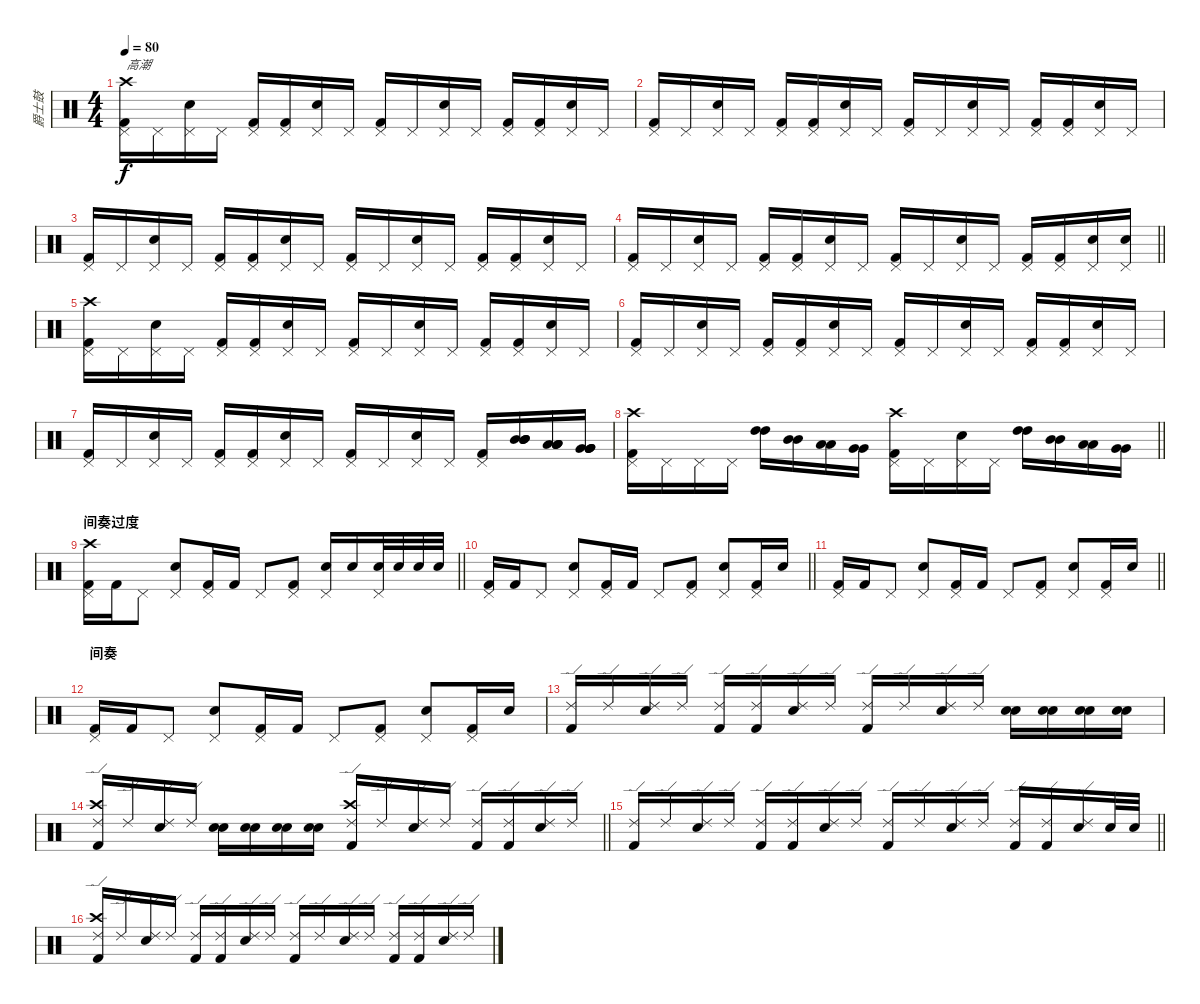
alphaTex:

\track ("爵士鼓" "爵士鼓") {instrument percussion}
\staff {score}
\articulation defaults
\ts (4 4)
\tempo 80
\clef neutral
\ks c
("Pedal Hi-Hat (hit)" "Kick (hit) 2" "Crash high (hit)").16{txt "高潮" dy f} "Pedal Hi-Hat (hit)".16 ("Pedal Hi-Hat (hit)" "Snare (hit) 2").16 "Pedal Hi-Hat (hit)".16 ("Pedal Hi-Hat (hit)" "Kick (hit) 2").16 ("Pedal Hi-Hat (hit)" "Kick (hit) 2").16 ("Pedal Hi-Hat (hit)" "Snare (hit) 2").16 "Pedal Hi-Hat (hit)".16 ("Pedal Hi-Hat (hit)" "Kick (hit) 2").16 "Pedal Hi-Hat (hit)".16 ("Pedal Hi-Hat (hit)" "Snare (hit) 2").16 "Pedal Hi-Hat (hit)".16 ("Pedal Hi-Hat (hit)" "Kick (hit) 2").16 ("Pedal Hi-Hat (hit)" "Kick (hit) 2").16 ("Pedal Hi-Hat (hit)" "Snare (hit) 2").16 "Pedal Hi-Hat (hit)".16 |
("Pedal Hi-Hat (hit)" "Kick (hit) 2").16 "Pedal Hi-Hat (hit)".16 ("Pedal Hi-Hat (hit)" "Snare (hit) 2").16 "Pedal Hi-Hat (hit)".16 ("Pedal Hi-Hat (hit)" "Kick (hit) 2").16 ("Pedal Hi-Hat (hit)" "Kick (hit) 2").16 ("Pedal Hi-Hat (hit)" "Snare (hit) 2").16 "Pedal Hi-Hat (hit)".16 ("Pedal Hi-Hat (hit)" "Kick (hit) 2").16 "Pedal Hi-Hat (hit)".16 ("Pedal Hi-Hat (hit)" "Snare (hit) 2").16 "Pedal Hi-Hat (hit)".16 ("Pedal Hi-Hat (hit)" "Kick (hit) 2").16 ("Pedal Hi-Hat (hit)" "Kick (hit) 2").16 ("Pedal Hi-Hat (hit)" "Snare (hit) 2").16 "Pedal Hi-Hat (hit)".16 |
("Pedal Hi-Hat (hit)" "Kick (hit) 2").16 "Pedal Hi-Hat (hit)".16 ("Pedal Hi-Hat (hit)" "Snare (hit) 2").16 "Pedal Hi-Hat (hit)".16 ("Pedal Hi-Hat (hit)" "Kick (hit) 2").16 ("Pedal Hi-Hat (hit)" "Kick (hit) 2").16 ("Pedal Hi-Hat (hit)" "Snare (hit) 2").16 "Pedal Hi-Hat (hit)".16 ("Pedal Hi-Hat (hit)" "Kick (hit) 2").16 "Pedal Hi-Hat (hit)".16 ("Pedal Hi-Hat (hit)" "Snare (hit) 2").16 "Pedal Hi-Hat (hit)".16 ("Pedal Hi-Hat (hit)" "Kick (hit) 2").16 ("Pedal Hi-Hat (hit)" "Kick (hit) 2").16 ("Pedal Hi-Hat (hit)" "Snare (hit) 2").16 "Pedal Hi-Hat (hit)".16 |
\barLineRight lightlight
("Pedal Hi-Hat (hit)" "Kick (hit) 2").16 "Pedal Hi-Hat (hit)".16 ("Pedal Hi-Hat (hit)" "Snare (hit) 2").16 "Pedal Hi-Hat (hit)".16 ("Pedal Hi-Hat (hit)" "Kick (hit) 2").16 ("Pedal Hi-Hat (hit)" "Kick (hit) 2").16 ("Pedal Hi-Hat (hit)" "Snare (hit) 2").16 "Pedal Hi-Hat (hit)".16 ("Pedal Hi-Hat (hit)" "Kick (hit) 2").16 "Pedal Hi-Hat (hit)".16 ("Pedal Hi-Hat (hit)" "Snare (hit) 2").16 "Pedal Hi-Hat (hit)".16 ("Pedal Hi-Hat (hit)" "Kick (hit) 2").16 ("Pedal Hi-Hat (hit)" "Kick (hit) 2").16 ("Pedal Hi-Hat (hit)" "Snare (hit) 2").16 ("Pedal Hi-Hat (hit)" "Snare (hit) 2").16 |
("Pedal Hi-Hat (hit)" "Kick (hit) 2" "Crash high (hit)").16 "Pedal Hi-Hat (hit)".16 ("Pedal Hi-Hat (hit)" "Snare (hit) 2").16 "Pedal Hi-Hat (hit)".16 ("Pedal Hi-Hat (hit)" "Kick (hit) 2").16 ("Pedal Hi-Hat (hit)" "Kick (hit) 2").16 ("Pedal Hi-Hat (hit)" "Snare (hit) 2").16 "Pedal Hi-Hat (hit)".16 ("Pedal Hi-Hat (hit)" "Kick (hit) 2").16 "Pedal Hi-Hat (hit)".16 ("Pedal Hi-Hat (hit)" "Snare (hit) 2").16 "Pedal Hi-Hat (hit)".16 ("Pedal Hi-Hat (hit)" "Kick (hit) 2").16 ("Pedal Hi-Hat (hit)" "Kick (hit) 2").16 ("Pedal Hi-Hat (hit)" "Snare (hit) 2").16 "Pedal Hi-Hat (hit)".16 |
("Pedal Hi-Hat (hit)" "Kick (hit) 2").16 "Pedal Hi-Hat (hit)".16 ("Pedal Hi-Hat (hit)" "Snare (hit) 2").16 "Pedal Hi-Hat (hit)".16 ("Pedal Hi-Hat (hit)" "Kick (hit) 2").16 ("Pedal Hi-Hat (hit)" "Kick (hit) 2").16 ("Pedal Hi-Hat (hit)" "Snare (hit) 2").16 "Pedal Hi-Hat (hit)".16 ("Pedal Hi-Hat (hit)" "Kick (hit) 2").16 "Pedal Hi-Hat (hit)".16 ("Pedal Hi-Hat (hit)" "Snare (hit) 2").16 "Pedal Hi-Hat (hit)".16 ("Pedal Hi-Hat (hit)" "Kick (hit) 2").16 ("Pedal Hi-Hat (hit)" "Kick (hit) 2").16 ("Pedal Hi-Hat (hit)" "Snare (hit) 2").16 "Pedal Hi-Hat (hit)".16 |
("Pedal Hi-Hat (hit)" "Kick (hit) 2").16 "Pedal Hi-Hat (hit)".16 ("Pedal Hi-Hat (hit)" "Snare (hit) 2").16 "Pedal Hi-Hat (hit)".16 ("Pedal Hi-Hat (hit)" "Kick (hit) 2").16 ("Pedal Hi-Hat (hit)" "Kick (hit) 2").16 ("Pedal Hi-Hat (hit)" "Snare (hit) 2").16 "Pedal Hi-Hat (hit)".16 ("Pedal Hi-Hat (hit)" "Kick (hit) 2").16 "Pedal Hi-Hat (hit)".16 ("Pedal Hi-Hat (hit)" "Snare (hit) 2").16 "Pedal Hi-Hat (hit)".16 ("Pedal Hi-Hat (hit)" "Kick (hit) 2").16 ("Mid Tom (hit)" "Mid Tom (hit)" "Mid Tom (hit)" "Mid Tom (hit)").16 ("Low Tom (hit)" "Low Tom (hit)" "Low Tom (hit)" "Low Tom (hit)").16 ("Very Low Tom (hit)" "Very Low Tom (hit)" "Very Low Tom (hit)" "Very Low Tom (hit)").16 |
\barLineRight lightlight
("Pedal Hi-Hat (hit)" "Kick (hit) 2" "Crash high (hit)").16 "Pedal Hi-Hat (hit)".16 "Pedal Hi-Hat (hit)".16 "Pedal Hi-Hat (hit)".16 ("High Tom (hit)" "High Tom (hit)").16 ("Mid Tom (hit)" "Mid Tom (hit)").16 ("Low Tom (hit)" "Low Tom (hit)").16 ("Very Low Tom (hit)" "Very Low Tom (hit)").16 ("Pedal Hi-Hat (hit)" "Kick (hit) 2" "Crash high (hit)").16 "Pedal Hi-Hat (hit)".16 ("Pedal Hi-Hat (hit)" "Snare (hit) 2").16 "Pedal Hi-Hat (hit)".16 ("High Tom (hit)" "High Tom (hit)").16 ("Mid Tom (hit)" "Mid Tom (hit)").16 ("Low Tom (hit)" "Low Tom (hit)").16 ("Very Low Tom (hit)" "Very Low Tom (hit)").16 |
\section ("" "间奏过度")
\barLineRight lightlight
("Pedal Hi-Hat (hit)" "Kick (hit) 2" "Crash high (hit)").16 "Kick (hit) 2".16 "Pedal Hi-Hat (hit)".8 ("Pedal Hi-Hat (hit)" "Snare (hit) 2").8 ("Pedal Hi-Hat (hit)" "Kick (hit) 2").16 "Kick (hit) 2".16 "Pedal Hi-Hat (hit)".8 ("Pedal Hi-Hat (hit)" "Kick (hit) 2").8 ("Pedal Hi-Hat (hit)" "Snare (hit) 2").16 "Snare (hit) 2".16 ("Pedal Hi-Hat (hit)" "Snare (hit) 2").32 "Snare (hit) 2".32 "Snare (hit) 2".32 "Snare (hit) 2".32 |
\barLineRight lightlight
("Pedal Hi-Hat (hit)" "Kick (hit) 2").16 "Kick (hit) 2".16 "Pedal Hi-Hat (hit)".8 ("Pedal Hi-Hat (hit)" "Snare (hit) 2").8 ("Pedal Hi-Hat (hit)" "Kick (hit) 2").16 "Kick (hit) 2".16 "Pedal Hi-Hat (hit)".8 ("Pedal Hi-Hat (hit)" "Kick (hit) 2").8 ("Pedal Hi-Hat (hit)" "Snare (hit) 2").8 ("Pedal Hi-Hat (hit)" "Kick (hit) 2").16 "Snare (hit) 2".16 |
\barLineRight lightlight
("Pedal Hi-Hat (hit)" "Kick (hit) 2").16 "Kick (hit) 2".16 "Pedal Hi-Hat (hit)".8 ("Pedal Hi-Hat (hit)" "Snare (hit) 2").8 ("Pedal Hi-Hat (hit)" "Kick (hit) 2").16 "Kick (hit) 2".16 "Pedal Hi-Hat (hit)".8 ("Pedal Hi-Hat (hit)" "Kick (hit) 2").8 ("Pedal Hi-Hat (hit)" "Snare (hit) 2").8 ("Pedal Hi-Hat (hit)" "Kick (hit) 2").16 "Snare (hit) 2".16 |
\section ("" "间奏")
("Pedal Hi-Hat (hit)" "Kick (hit) 2").16 "Kick (hit) 2".16 "Pedal Hi-Hat (hit)".8 ("Pedal Hi-Hat (hit)" "Snare (hit) 2").8 ("Pedal Hi-Hat (hit)" "Kick (hit) 2").16 "Kick (hit) 2".16 "Pedal Hi-Hat (hit)".8 ("Pedal Hi-Hat (hit)" "Kick (hit) 2").8 ("Pedal Hi-Hat (hit)" "Snare (hit) 2").8 ("Pedal Hi-Hat (hit)" "Kick (hit) 2").16 "Snare (hit) 2".16 |
("Ride (edge) 2" "Kick (hit) 2").16 "Ride (edge) 2".16 ("Ride (edge) 2" "Snare (hit) 2").16 "Ride (edge) 2".16 ("Ride (edge) 2" "Kick (hit) 2").16 ("Ride (edge) 2" "Kick (hit) 2").16 ("Ride (edge) 2" "Snare (hit) 2").16 "Ride (edge) 2".16 ("Ride (edge) 2" "Kick (hit) 2").16 "Ride (edge) 2".16 ("Ride (edge) 2" "Snare (hit) 2").16 "Ride (edge) 2".16 ("Snare (hit) 2" "Snare (hit) 2").16 ("Snare (hit) 2" "Snare (hit) 2").16 ("Snare (hit) 2" "Snare (hit) 2").16 ("Snare (hit) 2" "Snare (hit) 2").16 |
\barLineRight lightlight
("Ride (edge) 2" "Kick (hit) 2" "Crash high (hit)").16 "Ride (edge) 2".16 ("Ride (edge) 2" "Snare (hit) 2").16 "Ride (edge) 2".16 ("Snare (hit) 2" "Snare (hit) 2").16 ("Snare (hit) 2" "Snare (hit) 2").16 ("Snare (hit) 2" "Snare (hit) 2").16 ("Snare (hit) 2" "Snare (hit) 2").16 ("Ride (edge) 2" "Kick (hit) 2" "Crash high (hit)").16 "Ride (edge) 2".16 ("Ride (edge) 2" "Snare (hit) 2").16 "Ride (edge) 2".16 ("Ride (edge) 2" "Kick (hit) 2").16 ("Ride (edge) 2" "Kick (hit) 2").16 ("Ride (edge) 2" "Snare (hit) 2").16 "Ride (edge) 2".16 |
\barLineRight lightlight
("Ride (edge) 2" "Kick (hit) 2").16 "Ride (edge) 2".16 ("Ride (edge) 2" "Snare (hit) 2").16 "Ride (edge) 2".16 ("Ride (edge) 2" "Kick (hit) 2").16 ("Ride (edge) 2" "Kick (hit) 2").16 ("Ride (edge) 2" "Snare (hit) 2").16 "Ride (edge) 2".16 ("Ride (edge) 2" "Kick (hit) 2").16 "Ride (edge) 2".16 ("Ride (edge) 2" "Snare (hit) 2").16 "Ride (edge) 2".16 ("Ride (edge) 2" "Kick (hit) 2").16 ("Ride (edge) 2" "Kick (hit) 2").16 ("Ride (edge) 2" "Snare (hit) 2").16 "Snare (hit) 2".32 "Snare (hit) 2".32 |
("Ride (edge) 2" "Kick (hit) 2" "Crash high (hit)").16 "Ride (edge) 2".16 ("Ride (edge) 2" "Snare (hit) 2").16 "Ride (edge) 2".16 ("Ride (edge) 2" "Kick (hit) 2").16 ("Ride (edge) 2" "Kick (hit) 2").16 ("Ride (edge) 2" "Snare (hit) 2").16 "Ride (edge) 2".16 ("Ride (edge) 2" "Kick (hit) 2").16 "Ride (edge) 2".16 ("Ride (edge) 2" "Snare (hit) 2").16 "Ride (edge) 2".16 ("Ride (edge) 2" "Kick (hit) 2").16 ("Ride (edge) 2" "Kick (hit) 2").16 ("Ride (edge) 2" "Snare (hit) 2").16 "Ride (edge) 2".16
